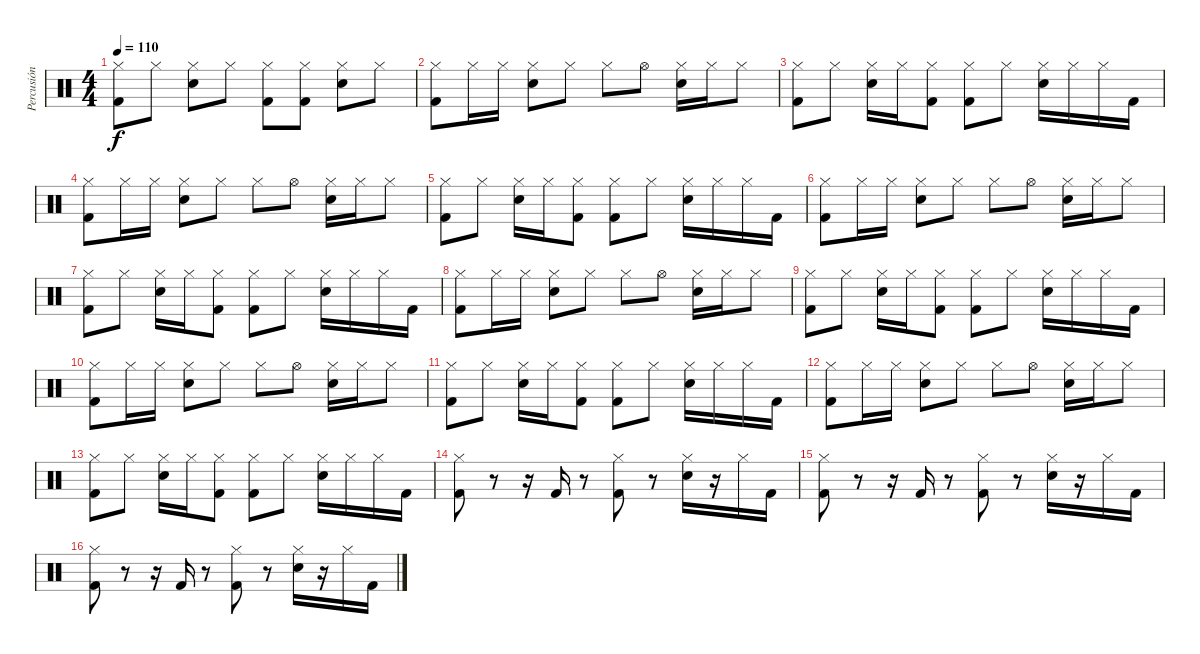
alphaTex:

\track ("Percusión" "Percusión") {instrument percussion}
\staff {score}
\articulation defaults
\ts (4 4)
\tempo 110
\clef neutral
\ks c
("Kick (hit) 2" "Hi-Hat (closed)").8{dy f} "Hi-Hat (closed)".8 ("Snare (hit) 2" "Hi-Hat (closed)").8 "Hi-Hat (closed)".8 ("Kick (hit) 2" "Hi-Hat (closed)").8 ("Kick (hit) 2" "Hi-Hat (closed)").8 ("Snare (hit) 2" "Hi-Hat (closed)").8 "Hi-Hat (closed)".8 |
("Hi-Hat (closed)" "Kick (hit) 2").8 "Hi-Hat (closed)".16 "Hi-Hat (closed)".16 ("Hi-Hat (closed)" "Snare (hit) 2").8 "Hi-Hat (closed)".8 "Hi-Hat (closed)".8 "Hi-Hat (open)".8 ("Hi-Hat (closed)" "Snare (hit) 2").16 "Hi-Hat (closed)".16 "Hi-Hat (closed)".8 |
("Hi-Hat (closed)" "Kick (hit) 2").8 "Hi-Hat (closed)".8 ("Hi-Hat (closed)" "Snare (hit) 2").16 "Hi-Hat (closed)".16 ("Hi-Hat (closed)" "Kick (hit) 2").8 ("Hi-Hat (closed)" "Kick (hit) 2").8 "Hi-Hat (closed)".8 ("Hi-Hat (closed)" "Snare (hit) 2").16 "Hi-Hat (closed)".16 "Hi-Hat (closed)".16 "Kick (hit) 2".16 |
("Hi-Hat (closed)" "Kick (hit) 2").8 "Hi-Hat (closed)".16 "Hi-Hat (closed)".16 ("Hi-Hat (closed)" "Snare (hit) 2").8 "Hi-Hat (closed)".8 "Hi-Hat (closed)".8 "Hi-Hat (open)".8 ("Hi-Hat (closed)" "Snare (hit) 2").16 "Hi-Hat (closed)".16 "Hi-Hat (closed)".8 |
("Hi-Hat (closed)" "Kick (hit) 2").8 "Hi-Hat (closed)".8 ("Hi-Hat (closed)" "Snare (hit) 2").16 "Hi-Hat (closed)".16 ("Hi-Hat (closed)" "Kick (hit) 2").8 ("Hi-Hat (closed)" "Kick (hit) 2").8 "Hi-Hat (closed)".8 ("Hi-Hat (closed)" "Snare (hit) 2").16 "Hi-Hat (closed)".16 "Hi-Hat (closed)".16 "Kick (hit) 2".16 |
("Hi-Hat (closed)" "Kick (hit) 2").8 "Hi-Hat (closed)".16 "Hi-Hat (closed)".16 ("Hi-Hat (closed)" "Snare (hit) 2").8 "Hi-Hat (closed)".8 "Hi-Hat (closed)".8 "Hi-Hat (open)".8 ("Hi-Hat (closed)" "Snare (hit) 2").16 "Hi-Hat (closed)".16 "Hi-Hat (closed)".8 |
("Hi-Hat (closed)" "Kick (hit) 2").8 "Hi-Hat (closed)".8 ("Hi-Hat (closed)" "Snare (hit) 2").16 "Hi-Hat (closed)".16 ("Hi-Hat (closed)" "Kick (hit) 2").8 ("Hi-Hat (closed)" "Kick (hit) 2").8 "Hi-Hat (closed)".8 ("Hi-Hat (closed)" "Snare (hit) 2").16 "Hi-Hat (closed)".16 "Hi-Hat (closed)".16 "Kick (hit) 2".16 |
("Hi-Hat (closed)" "Kick (hit) 2").8 "Hi-Hat (closed)".16 "Hi-Hat (closed)".16 ("Hi-Hat (closed)" "Snare (hit) 2").8 "Hi-Hat (closed)".8 "Hi-Hat (closed)".8 "Hi-Hat (open)".8 ("Hi-Hat (closed)" "Snare (hit) 2").16 "Hi-Hat (closed)".16 "Hi-Hat (closed)".8 |
("Hi-Hat (closed)" "Kick (hit) 2").8 "Hi-Hat (closed)".8 ("Hi-Hat (closed)" "Snare (hit) 2").16 "Hi-Hat (closed)".16 ("Hi-Hat (closed)" "Kick (hit) 2").8 ("Hi-Hat (closed)" "Kick (hit) 2").8 "Hi-Hat (closed)".8 ("Hi-Hat (closed)" "Snare (hit) 2").16 "Hi-Hat (closed)".16 "Hi-Hat (closed)".16 "Kick (hit) 2".16 |
("Hi-Hat (closed)" "Kick (hit) 2").8 "Hi-Hat (closed)".16 "Hi-Hat (closed)".16 ("Hi-Hat (closed)" "Snare (hit) 2").8 "Hi-Hat (closed)".8 "Hi-Hat (closed)".8 "Hi-Hat (open)".8 ("Hi-Hat (closed)" "Snare (hit) 2").16 "Hi-Hat (closed)".16 "Hi-Hat (closed)".8 |
("Hi-Hat (closed)" "Kick (hit) 2").8 "Hi-Hat (closed)".8 ("Hi-Hat (closed)" "Snare (hit) 2").16 "Hi-Hat (closed)".16 ("Hi-Hat (closed)" "Kick (hit) 2").8 ("Hi-Hat (closed)" "Kick (hit) 2").8 "Hi-Hat (closed)".8 ("Hi-Hat (closed)" "Snare (hit) 2").16 "Hi-Hat (closed)".16 "Hi-Hat (closed)".16 "Kick (hit) 2".16 |
("Hi-Hat (closed)" "Kick (hit) 2").8 "Hi-Hat (closed)".16 "Hi-Hat (closed)".16 ("Hi-Hat (closed)" "Snare (hit) 2").8 "Hi-Hat (closed)".8 "Hi-Hat (closed)".8 "Hi-Hat (open)".8 ("Hi-Hat (closed)" "Snare (hit) 2").16 "Hi-Hat (closed)".16 "Hi-Hat (closed)".8 |
("Hi-Hat (closed)" "Kick (hit) 2").8 "Hi-Hat (closed)".8 ("Hi-Hat (closed)" "Snare (hit) 2").16 "Hi-Hat (closed)".16 ("Hi-Hat (closed)" "Kick (hit) 2").8 ("Hi-Hat (closed)" "Kick (hit) 2").8 "Hi-Hat (closed)".8 ("Hi-Hat (closed)" "Snare (hit) 2").16 "Hi-Hat (closed)".16 "Hi-Hat (closed)".16 "Kick (hit) 2".16 |
("Hi-Hat (closed)" "Kick (hit) 2").8 r.8 r.16 "Kick (hit) 2".16 r.8 ("Hi-Hat (closed)" "Kick (hit) 2").8 r.8 ("Hi-Hat (closed)" "Snare (hit) 2").16 r.16 "Hi-Hat (closed)".16 "Kick (hit) 2".16 |
("Hi-Hat (closed)" "Kick (hit) 2").8 r.8 r.16 "Kick (hit) 2".16 r.8 ("Hi-Hat (closed)" "Kick (hit) 2").8 r.8 ("Hi-Hat (closed)" "Snare (hit) 2").16 r.16 "Hi-Hat (closed)".16 "Kick (hit) 2".16 |
("Hi-Hat (closed)" "Kick (hit) 2").8 r.8 r.16 "Kick (hit) 2".16 r.8 ("Hi-Hat (closed)" "Kick (hit) 2").8 r.8 ("Hi-Hat (closed)" "Snare (hit) 2").16 r.16 "Hi-Hat (closed)".16 "Kick (hit) 2".16
